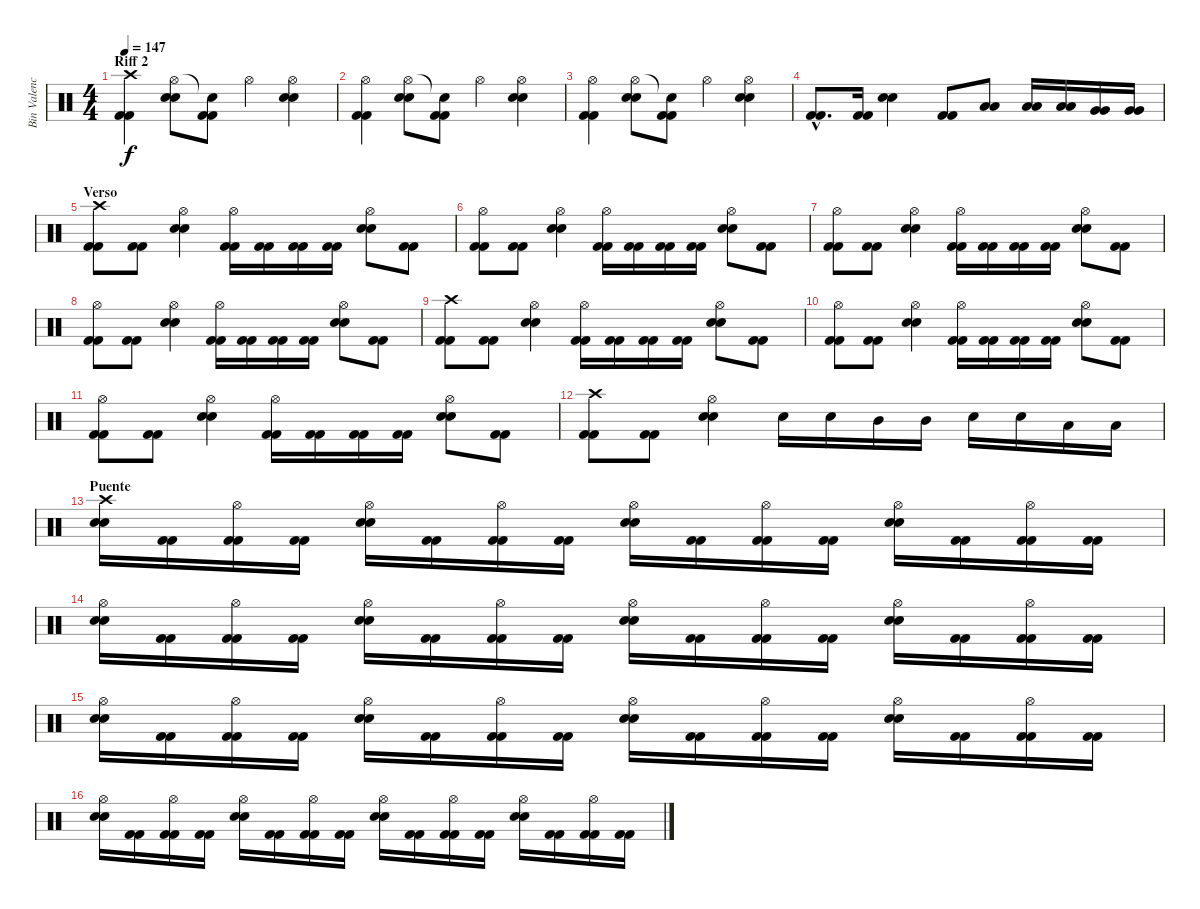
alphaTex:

\track ("Bin Valencia (Bateria)" "Bin Valenc") {instrument percussion}
\staff {score}
\articulation defaults
\ts (4 4)
\section ("" "Riff 2")
\tempo 147
\clef neutral
\ks c
("Crash high (hit)" "Kick (hit) 2" "Kick (hit) 2").4{dy f} ("Hi-Hat (open)" "Snare (hit) 2" "Snare (hit) 2").8 ("Snare (hit)"{t} "Kick (hit) 2" "Kick (hit) 2").8 "Hi-Hat (open)".4 ("Hi-Hat (open)" "Snare (hit) 2" "Snare (hit) 2").4 |
("Hi-Hat (open)" "Kick (hit) 2" "Kick (hit) 2").4 ("Hi-Hat (open)" "Snare (hit) 2" "Snare (hit) 2").8 ("Snare (hit)"{t} "Kick (hit) 2" "Kick (hit) 2").8 "Hi-Hat (open)".4 ("Hi-Hat (open)" "Snare (hit) 2" "Snare (hit) 2").4 |
("Hi-Hat (open)" "Kick (hit) 2" "Kick (hit) 2").4 ("Hi-Hat (open)" "Snare (hit) 2" "Snare (hit) 2").8 ("Snare (hit)"{t} "Kick (hit) 2" "Kick (hit) 2").8 "Hi-Hat (open)".4 ("Hi-Hat (open)" "Snare (hit) 2" "Snare (hit) 2").4 |
("Kick (hit) 2"{hac} "Kick (hit) 2"{hac}).8{d} ("Kick (hit) 2" "Kick (hit) 2").16 ("Snare (hit) 2" "Snare (hit) 2").4 ("Kick (hit) 2" "Kick (hit) 2").8 ("Low Tom (hit)" "Low Tom (hit)").8 ("Low Tom (hit)" "Low Tom (hit)").16 ("Low Tom (hit)" "Low Tom (hit)").16 ("Very Low Tom (hit)" "Very Low Tom (hit)").16 ("Very Low Tom (hit)" "Very Low Tom (hit)").16 |
\section ("" "Verso")
("Crash high (hit)" "Kick (hit) 2" "Kick (hit) 2").8 ("Kick (hit) 2" "Kick (hit) 2").8 ("Hi-Hat (open)" "Snare (hit) 2" "Snare (hit) 2").4 ("Hi-Hat (open)" "Kick (hit) 2" "Kick (hit) 2").16 ("Kick (hit) 2" "Kick (hit) 2").16 ("Kick (hit) 2" "Kick (hit) 2").16 ("Kick (hit) 2" "Kick (hit) 2").16 ("Hi-Hat (open)" "Snare (hit) 2" "Snare (hit) 2").8 ("Kick (hit) 2" "Kick (hit) 2").8 |
("Hi-Hat (open)" "Kick (hit) 2" "Kick (hit) 2").8 ("Kick (hit) 2" "Kick (hit) 2").8 ("Hi-Hat (open)" "Snare (hit) 2" "Snare (hit) 2").4 ("Hi-Hat (open)" "Kick (hit) 2" "Kick (hit) 2").16 ("Kick (hit) 2" "Kick (hit) 2").16 ("Kick (hit) 2" "Kick (hit) 2").16 ("Kick (hit) 2" "Kick (hit) 2").16 ("Hi-Hat (open)" "Snare (hit) 2" "Snare (hit) 2").8 ("Kick (hit) 2" "Kick (hit) 2").8 |
("Hi-Hat (open)" "Kick (hit) 2" "Kick (hit) 2").8 ("Kick (hit) 2" "Kick (hit) 2").8 ("Hi-Hat (open)" "Snare (hit) 2" "Snare (hit) 2").4 ("Hi-Hat (open)" "Kick (hit) 2" "Kick (hit) 2").16 ("Kick (hit) 2" "Kick (hit) 2").16 ("Kick (hit) 2" "Kick (hit) 2").16 ("Kick (hit) 2" "Kick (hit) 2").16 ("Hi-Hat (open)" "Snare (hit) 2" "Snare (hit) 2").8 ("Kick (hit) 2" "Kick (hit) 2").8 |
("Hi-Hat (open)" "Kick (hit) 2" "Kick (hit) 2").8 ("Kick (hit) 2" "Kick (hit) 2").8 ("Hi-Hat (open)" "Snare (hit) 2" "Snare (hit) 2").4 ("Hi-Hat (open)" "Kick (hit) 2" "Kick (hit) 2").16 ("Kick (hit) 2" "Kick (hit) 2").16 ("Kick (hit) 2" "Kick (hit) 2").16 ("Kick (hit) 2" "Kick (hit) 2").16 ("Hi-Hat (open)" "Snare (hit) 2" "Snare (hit) 2").8 ("Kick (hit) 2" "Kick (hit) 2").8 |
("Crash high (hit)" "Kick (hit) 2" "Kick (hit) 2").8 ("Kick (hit) 2" "Kick (hit) 2").8 ("Hi-Hat (open)" "Snare (hit) 2" "Snare (hit) 2").4 ("Hi-Hat (open)" "Kick (hit) 2" "Kick (hit) 2").16 ("Kick (hit) 2" "Kick (hit) 2").16 ("Kick (hit) 2" "Kick (hit) 2").16 ("Kick (hit) 2" "Kick (hit) 2").16 ("Hi-Hat (open)" "Snare (hit) 2" "Snare (hit) 2").8 ("Kick (hit) 2" "Kick (hit) 2").8 |
("Hi-Hat (open)" "Kick (hit) 2" "Kick (hit) 2").8 ("Kick (hit) 2" "Kick (hit) 2").8 ("Hi-Hat (open)" "Snare (hit) 2" "Snare (hit) 2").4 ("Hi-Hat (open)" "Kick (hit) 2" "Kick (hit) 2").16 ("Kick (hit) 2" "Kick (hit) 2").16 ("Kick (hit) 2" "Kick (hit) 2").16 ("Kick (hit) 2" "Kick (hit) 2").16 ("Hi-Hat (open)" "Snare (hit) 2" "Snare (hit) 2").8 ("Kick (hit) 2" "Kick (hit) 2").8 |
("Hi-Hat (open)" "Kick (hit) 2" "Kick (hit) 2").8 ("Kick (hit) 2" "Kick (hit) 2").8 ("Hi-Hat (open)" "Snare (hit) 2" "Snare (hit) 2").4 ("Hi-Hat (open)" "Kick (hit) 2" "Kick (hit) 2").16 ("Kick (hit) 2" "Kick (hit) 2").16 ("Kick (hit) 2" "Kick (hit) 2").16 ("Kick (hit) 2" "Kick (hit) 2").16 ("Hi-Hat (open)" "Snare (hit) 2" "Snare (hit) 2").8 ("Kick (hit) 2" "Kick (hit) 2").8 |
("Crash high (hit)" "Kick (hit) 2" "Kick (hit) 2").8 ("Kick (hit) 2" "Kick (hit) 2").8 ("Hi-Hat (open)" "Snare (hit) 2" "Snare (hit) 2").4 "Snare (hit) 2".16 "Snare (hit) 2".16 "Mid Tom (hit)".16 "Mid Tom (hit)".16 "Snare (hit) 2".16 "Snare (hit) 2".16 "Low Tom (hit)".16 "Low Tom (hit)".16 |
\section ("" "Puente")
("Crash high (hit)" "Snare (hit) 2" "Snare (hit) 2").16 ("Kick (hit) 2" "Kick (hit) 2").16 ("Hi-Hat (open)" "Kick (hit) 2" "Kick (hit) 2").16 ("Kick (hit) 2" "Kick (hit) 2").16 ("Hi-Hat (open)" "Snare (hit) 2" "Snare (hit) 2").16 ("Kick (hit) 2" "Kick (hit) 2").16 ("Hi-Hat (open)" "Kick (hit) 2" "Kick (hit) 2").16 ("Kick (hit) 2" "Kick (hit) 2").16 ("Hi-Hat (open)" "Snare (hit) 2" "Snare (hit) 2").16 ("Kick (hit) 2" "Kick (hit) 2").16 ("Hi-Hat (open)" "Kick (hit) 2" "Kick (hit) 2").16 ("Kick (hit) 2" "Kick (hit) 2").16 ("Hi-Hat (open)" "Snare (hit) 2" "Snare (hit) 2").16 ("Kick (hit) 2" "Kick (hit) 2").16 ("Hi-Hat (open)" "Kick (hit) 2" "Kick (hit) 2").16 ("Kick (hit) 2" "Kick (hit) 2").16 |
("Hi-Hat (open)" "Snare (hit) 2" "Snare (hit) 2").16 ("Kick (hit) 2" "Kick (hit) 2").16 ("Hi-Hat (open)" "Kick (hit) 2" "Kick (hit) 2").16 ("Kick (hit) 2" "Kick (hit) 2").16 ("Hi-Hat (open)" "Snare (hit) 2" "Snare (hit) 2").16 ("Kick (hit) 2" "Kick (hit) 2").16 ("Hi-Hat (open)" "Kick (hit) 2" "Kick (hit) 2").16 ("Kick (hit) 2" "Kick (hit) 2").16 ("Hi-Hat (open)" "Snare (hit) 2" "Snare (hit) 2").16 ("Kick (hit) 2" "Kick (hit) 2").16 ("Hi-Hat (open)" "Kick (hit) 2" "Kick (hit) 2").16 ("Kick (hit) 2" "Kick (hit) 2").16 ("Hi-Hat (open)" "Snare (hit) 2" "Snare (hit) 2").16 ("Kick (hit) 2" "Kick (hit) 2").16 ("Hi-Hat (open)" "Kick (hit) 2" "Kick (hit) 2").16 ("Kick (hit) 2" "Kick (hit) 2").16 |
("Hi-Hat (open)" "Snare (hit) 2" "Snare (hit) 2").16 ("Kick (hit) 2" "Kick (hit) 2").16 ("Hi-Hat (open)" "Kick (hit) 2" "Kick (hit) 2").16 ("Kick (hit) 2" "Kick (hit) 2").16 ("Hi-Hat (open)" "Snare (hit) 2" "Snare (hit) 2").16 ("Kick (hit) 2" "Kick (hit) 2").16 ("Hi-Hat (open)" "Kick (hit) 2" "Kick (hit) 2").16 ("Kick (hit) 2" "Kick (hit) 2").16 ("Hi-Hat (open)" "Snare (hit) 2" "Snare (hit) 2").16 ("Kick (hit) 2" "Kick (hit) 2").16 ("Hi-Hat (open)" "Kick (hit) 2" "Kick (hit) 2").16 ("Kick (hit) 2" "Kick (hit) 2").16 ("Hi-Hat (open)" "Snare (hit) 2" "Snare (hit) 2").16 ("Kick (hit) 2" "Kick (hit) 2").16 ("Hi-Hat (open)" "Kick (hit) 2" "Kick (hit) 2").16 ("Kick (hit) 2" "Kick (hit) 2").16 |
("Hi-Hat (open)" "Snare (hit) 2" "Snare (hit) 2").16 ("Kick (hit) 2" "Kick (hit) 2").16 ("Hi-Hat (open)" "Kick (hit) 2" "Kick (hit) 2").16 ("Kick (hit) 2" "Kick (hit) 2").16 ("Hi-Hat (open)" "Snare (hit) 2" "Snare (hit) 2").16 ("Kick (hit) 2" "Kick (hit) 2").16 ("Hi-Hat (open)" "Kick (hit) 2" "Kick (hit) 2").16 ("Kick (hit) 2" "Kick (hit) 2").16 ("Hi-Hat (open)" "Snare (hit) 2" "Snare (hit) 2").16 ("Kick (hit) 2" "Kick (hit) 2").16 ("Hi-Hat (open)" "Kick (hit) 2" "Kick (hit) 2").16 ("Kick (hit) 2" "Kick (hit) 2").16 ("Hi-Hat (open)" "Snare (hit) 2" "Snare (hit) 2").16 ("Kick (hit) 2" "Kick (hit) 2").16 ("Hi-Hat (open)" "Kick (hit) 2" "Kick (hit) 2").16 ("Kick (hit) 2" "Kick (hit) 2").16
